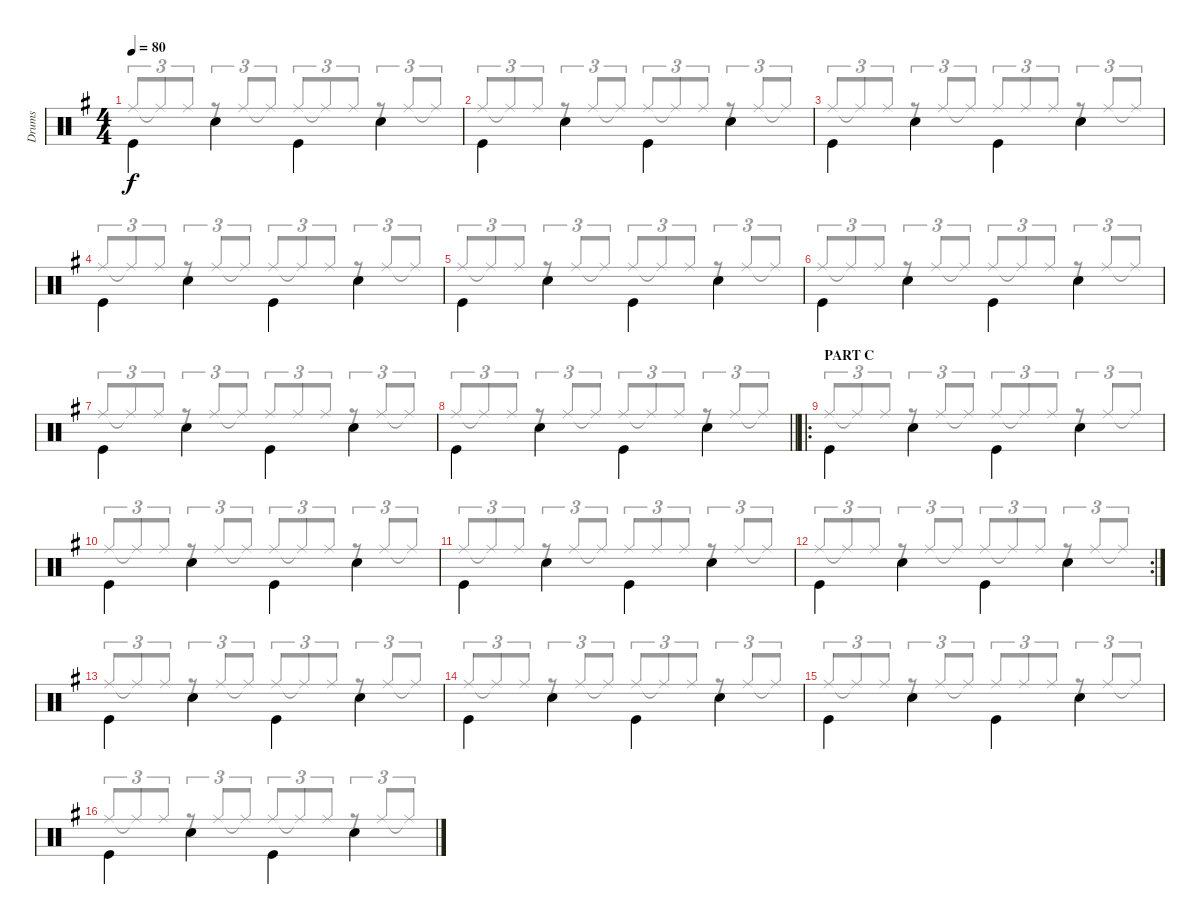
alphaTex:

\track ("Drums" "Drums") {instrument percussion}
\staff {score}
\articulation defaults
\voice
\ts (4 4)
\tempo 80
\clef neutral
\ks g "Kick (hit)".4{dy f beam Down} "Snare (hit) 2".4{beam Down} "Kick (hit)".4{beam Down} "Snare (hit) 2".4{beam Down}
|
"Kick (hit)".4{beam Down} "Snare (hit) 2".4{beam Down} "Kick (hit)".4{beam Down} "Snare (hit) 2".4{beam Down} |
"Kick (hit)".4{beam Down} "Snare (hit) 2".4{beam Down} "Kick (hit)".4{beam Down} "Snare (hit) 2".4{beam Down} |
"Kick (hit)".4{beam Down} "Snare (hit) 2".4{beam Down} "Kick (hit)".4{beam Down} "Snare (hit) 2".4{beam Down} |
"Kick (hit)".4{beam Down} "Snare (hit) 2".4{beam Down} "Kick (hit)".4{beam Down} "Snare (hit) 2".4{beam Down} |
"Kick (hit)".4{beam Down} "Snare (hit) 2".4{beam Down} "Kick (hit)".4{beam Down} "Snare (hit) 2".4{beam Down} |
"Kick (hit)".4{beam Down} "Snare (hit) 2".4{beam Down} "Kick (hit)".4{beam Down} "Snare (hit) 2".4{beam Down} |
\barLineRight lightlight "Kick (hit)".4{beam Down} "Snare (hit) 2".4{beam Down} "Kick (hit)".4{beam Down} "Snare (hit) 2".4{beam Down}
|
\ro
\section ("" "PART C")
"Kick (hit)".4{beam Down} "Snare (hit) 2".4{beam Down} "Kick (hit)".4{beam Down} "Snare (hit) 2".4{beam Down} |
"Kick (hit)".4{beam Down} "Snare (hit) 2".4{beam Down} "Kick (hit)".4{beam Down} "Snare (hit) 2".4{beam Down} |
"Kick (hit)".4{beam Down} "Snare (hit) 2".4{beam Down} "Kick (hit)".4{beam Down} "Snare (hit) 2".4{beam Down} |
\rc 2 "Kick (hit)".4{beam Down} "Snare (hit) 2".4{beam Down} "Kick (hit)".4{beam Down} "Snare (hit) 2".4{beam Down}
|
"Kick (hit)".4{beam Down} "Snare (hit) 2".4{beam Down} "Kick (hit)".4{beam Down} "Snare (hit) 2".4{beam Down} |
"Kick (hit)".4{beam Down} "Snare (hit) 2".4{beam Down} "Kick (hit)".4{beam Down} "Snare (hit) 2".4{beam Down} |
"Kick (hit)".4{beam Down} "Snare (hit) 2".4{beam Down} "Kick (hit)".4{beam Down} "Snare (hit) 2".4{beam Down} |
"Kick (hit)".4{beam Down} "Snare (hit) 2".4{beam Down} "Kick (hit)".4{beam Down} "Snare (hit) 2".4{beam Down}
\voice
\clef neutral
\ottava regular
\simile none
\ks g "Ride (middle)".8{tu (3 2) dy f beam Up} "Ride (middle)"{t}.8{tu (3 2) beam Up} "Ride (middle)".8{tu (3 2) beam Up}
r.8{tu (3 2) beam Up} "Ride (middle)".8{tu (3 2) beam Up} "Ride (middle)"{t}.8{tu (3 2) beam Up} "Ride (middle)".8{tu (3 2) beam Up} "Ride (middle)"{t}.8{tu (3 2) beam Up} "Ride (middle)".8{tu (3 2) beam Up} r.8{tu (3 2) beam Up} "Ride (middle)".8{tu (3 2) beam Up} "Ride (middle)"{t}.8{tu (3 2) beam Up} |
"Ride (middle)".8{tu (3 2) beam Up} "Ride (middle)"{t}.8{tu (3 2) beam Up} "Ride (middle)".8{tu (3 2) beam Up} r.8{tu (3 2) beam Up} "Ride (middle)".8{tu (3 2) beam Up} "Ride (middle)"{t}.8{tu (3 2) beam Up} "Ride (middle)".8{tu (3 2) beam Up} "Ride (middle)"{t}.8{tu (3 2) beam Up} "Ride (middle)".8{tu (3 2) beam Up} r.8{tu (3 2) beam Up} "Ride (middle)".8{tu (3 2) beam Up} "Ride (middle)"{t}.8{tu (3 2) beam Up} |
"Ride (middle)".8{tu (3 2) beam Up} "Ride (middle)"{t}.8{tu (3 2) beam Up} "Ride (middle)".8{tu (3 2) beam Up} r.8{tu (3 2) beam Up} "Ride (middle)".8{tu (3 2) beam Up} "Ride (middle)"{t}.8{tu (3 2) beam Up} "Ride (middle)".8{tu (3 2) beam Up} "Ride (middle)".8{tu (3 2) beam Up} "Ride (middle)".8{tu (3 2) beam Up} r.8{tu (3 2) beam Up} "Ride (middle)".8{tu (3 2) beam Up} "Ride (middle)"{t}.8{tu (3 2) beam Up} |
"Ride (middle)".8{tu (3 2) beam Up} "Ride (middle)"{t}.8{tu (3 2) beam Up} "Ride (middle)".8{tu (3 2) beam Up} r.8{tu (3 2) beam Up} "Ride (middle)".8{tu (3 2) beam Up} "Ride (middle)"{t}.8{tu (3 2) beam Up} "Ride (middle)".8{tu (3 2) beam Up} "Ride (middle)"{t}.8{tu (3 2) beam Up} "Ride (middle)".8{tu (3 2) beam Up} r.8{tu (3 2) beam Up} "Ride (middle)".8{tu (3 2) beam Up} "Ride (middle)"{t}.8{tu (3 2) beam Up} |
"Ride (middle)".8{tu (3 2) beam Up} "Ride (middle)"{t}.8{tu (3 2) beam Up} "Ride (middle)".8{tu (3 2) beam Up} r.8{tu (3 2) beam Up} "Ride (middle)".8{tu (3 2) beam Up} "Ride (middle)"{t}.8{tu (3 2) beam Up} "Ride (middle)".8{tu (3 2) beam Up} "Ride (middle)"{t}.8{tu (3 2) beam Up} "Ride (middle)".8{tu (3 2) beam Up} r.8{tu (3 2) beam Up} "Ride (middle)".8{tu (3 2) beam Up} "Ride (middle)"{t}.8{tu (3 2) beam Up} |
"Ride (middle)".8{tu (3 2) beam Up} "Ride (middle)"{t}.8{tu (3 2) beam Up} "Ride (middle)".8{tu (3 2) beam Up} r.8{tu (3 2) beam Up} "Ride (middle)".8{tu (3 2) beam Up} "Ride (middle)"{t}.8{tu (3 2) beam Up} "Ride (middle)".8{tu (3 2) beam Up} "Ride (middle)"{t}.8{tu (3 2) beam Up} "Ride (middle)".8{tu (3 2) beam Up} r.8{tu (3 2) beam Up} "Ride (middle)".8{tu (3 2) beam Up} "Ride (middle)"{t}.8{tu (3 2) beam Up} |
"Ride (middle)".8{tu (3 2) beam Up} "Ride (middle)"{t}.8{tu (3 2) beam Up} "Ride (middle)".8{tu (3 2) beam Up} r.8{tu (3 2) beam Up} "Ride (middle)".8{tu (3 2) beam Up} "Ride (middle)"{t}.8{tu (3 2) beam Up} "Ride (middle)".8{tu (3 2) beam Up} "Ride (middle)".8{tu (3 2) beam Up} "Ride (middle)".8{tu (3 2) beam Up} r.8{tu (3 2) beam Up} "Ride (middle)".8{tu (3 2) beam Up} "Ride (middle)"{t}.8{tu (3 2) beam Up} |
\barLineRight lightlight "Ride (middle)".8{tu (3 2) beam Up} "Ride (middle)"{t}.8{tu (3 2) beam Up} "Ride (middle)".8{tu (3 2) beam Up}
r.8{tu (3 2) beam Up} "Ride (middle)".8{tu (3 2) beam Up} "Ride (middle)"{t}.8{tu (3 2) beam Up} "Ride (middle)".8{tu (3 2) beam Up} "Ride (middle)"{t}.8{tu (3 2) beam Up} "Ride (middle)".8{tu (3 2) beam Up} r.8{tu (3 2) beam Up} "Ride (middle)".8{tu (3 2) beam Up} "Ride (middle)"{t}.8{tu (3 2) beam Up} |
"Ride (middle)".8{tu (3 2) beam Up} "Ride (middle)"{t}.8{tu (3 2) beam Up} "Ride (middle)".8{tu (3 2) beam Up} r.8{tu (3 2) beam Up} "Ride (middle)".8{tu (3 2) beam Up} "Ride (middle)"{t}.8{tu (3 2) beam Up} "Ride (middle)".8{tu (3 2) beam Up} "Ride (middle)"{t}.8{tu (3 2) beam Up} "Ride (middle)".8{tu (3 2) beam Up} r.8{tu (3 2) beam Up} "Ride (middle)".8{tu (3 2) beam Up} "Ride (middle)"{t}.8{tu (3 2) beam Up} |
"Ride (middle)".8{tu (3 2) beam Up} "Ride (middle)"{t}.8{tu (3 2) beam Up} "Ride (middle)".8{tu (3 2) beam Up} r.8{tu (3 2) beam Up} "Ride (middle)".8{tu (3 2) beam Up} "Ride (middle)"{t}.8{tu (3 2) beam Up} "Ride (middle)".8{tu (3 2) beam Up} "Ride (middle)"{t}.8{tu (3 2) beam Up} "Ride (middle)".8{tu (3 2) beam Up} r.8{tu (3 2) beam Up} "Ride (middle)".8{tu (3 2) beam Up} "Ride (middle)"{t}.8{tu (3 2) beam Up} |
"Ride (middle)".8{tu (3 2) beam Up} "Ride (middle)"{t}.8{tu (3 2) beam Up} "Ride (middle)".8{tu (3 2) beam Up} r.8{tu (3 2) beam Up} "Ride (middle)".8{tu (3 2) beam Up} "Ride (middle)"{t}.8{tu (3 2) beam Up} "Ride (middle)".8{tu (3 2) beam Up} "Ride (middle)".8{tu (3 2) beam Up} "Ride (middle)".8{tu (3 2) beam Up} r.8{tu (3 2) beam Up} "Ride (middle)".8{tu (3 2) beam Up} "Ride (middle)"{t}.8{tu (3 2) beam Up} |
"Ride (middle)".8{tu (3 2) beam Up} "Ride (middle)"{t}.8{tu (3 2) beam Up} "Ride (middle)".8{tu (3 2) beam Up} r.8{tu (3 2) beam Up} "Ride (middle)".8{tu (3 2) beam Up} "Ride (middle)"{t}.8{tu (3 2) beam Up} "Ride (middle)".8{tu (3 2) beam Up} "Ride (middle)"{t}.8{tu (3 2) beam Up} "Ride (middle)".8{tu (3 2) beam Up} r.8{tu (3 2) beam Up} "Ride (middle)".8{tu (3 2) beam Up} "Ride (middle)"{t}.8{tu (3 2) beam Up} |
"Ride (middle)".8{tu (3 2) beam Up} "Ride (middle)"{t}.8{tu (3 2) beam Up} "Ride (middle)".8{tu (3 2) beam Up} r.8{tu (3 2) beam Up} "Ride (middle)".8{tu (3 2) beam Up} "Ride (middle)"{t}.8{tu (3 2) beam Up} "Ride (middle)".8{tu (3 2) beam Up} "Ride (middle)"{t}.8{tu (3 2) beam Up} "Ride (middle)".8{tu (3 2) beam Up} r.8{tu (3 2) beam Up} "Ride (middle)".8{tu (3 2) beam Up} "Ride (middle)"{t}.8{tu (3 2) beam Up} |
"Ride (middle)".8{tu (3 2) beam Up} "Ride (middle)"{t}.8{tu (3 2) beam Up} "Ride (middle)".8{tu (3 2) beam Up} r.8{tu (3 2) beam Up} "Ride (middle)".8{tu (3 2) beam Up} "Ride (middle)"{t}.8{tu (3 2) beam Up} "Ride (middle)".8{tu (3 2) beam Up} "Ride (middle)"{t}.8{tu (3 2) beam Up} "Ride (middle)".8{tu (3 2) beam Up} r.8{tu (3 2) beam Up} "Ride (middle)".8{tu (3 2) beam Up} "Ride (middle)"{t}.8{tu (3 2) beam Up} |
"Ride (middle)".8{tu (3 2) beam Up} "Ride (middle)"{t}.8{tu (3 2) beam Up} "Ride (middle)".8{tu (3 2) beam Up} r.8{tu (3 2) beam Up} "Ride (middle)".8{tu (3 2) beam Up} "Ride (middle)"{t}.8{tu (3 2) beam Up} "Ride (middle)".8{tu (3 2) beam Up} "Ride (middle)".8{tu (3 2) beam Up} "Ride (middle)".8{tu (3 2) beam Up} r.8{tu (3 2) beam Up} "Ride (middle)".8{tu (3 2) beam Up} "Ride (middle)"{t}.8{tu (3 2) beam Up} |
"Ride (middle)".8{tu (3 2) beam Up} "Ride (middle)"{t}.8{tu (3 2) beam Up} "Ride (middle)".8{tu (3 2) beam Up} r.8{tu (3 2) beam Up} "Ride (middle)".8{tu (3 2) beam Up} "Ride (middle)"{t}.8{tu (3 2) beam Up} "Ride (middle)".8{tu (3 2) beam Up} "Ride (middle)"{t}.8{tu (3 2) beam Up} "Ride (middle)".8{tu (3 2) beam Up} r.8{tu (3 2) beam Up} "Ride (middle)".8{tu (3 2) beam Up} "Ride (middle)"{t}.8{tu (3 2) beam Up}
